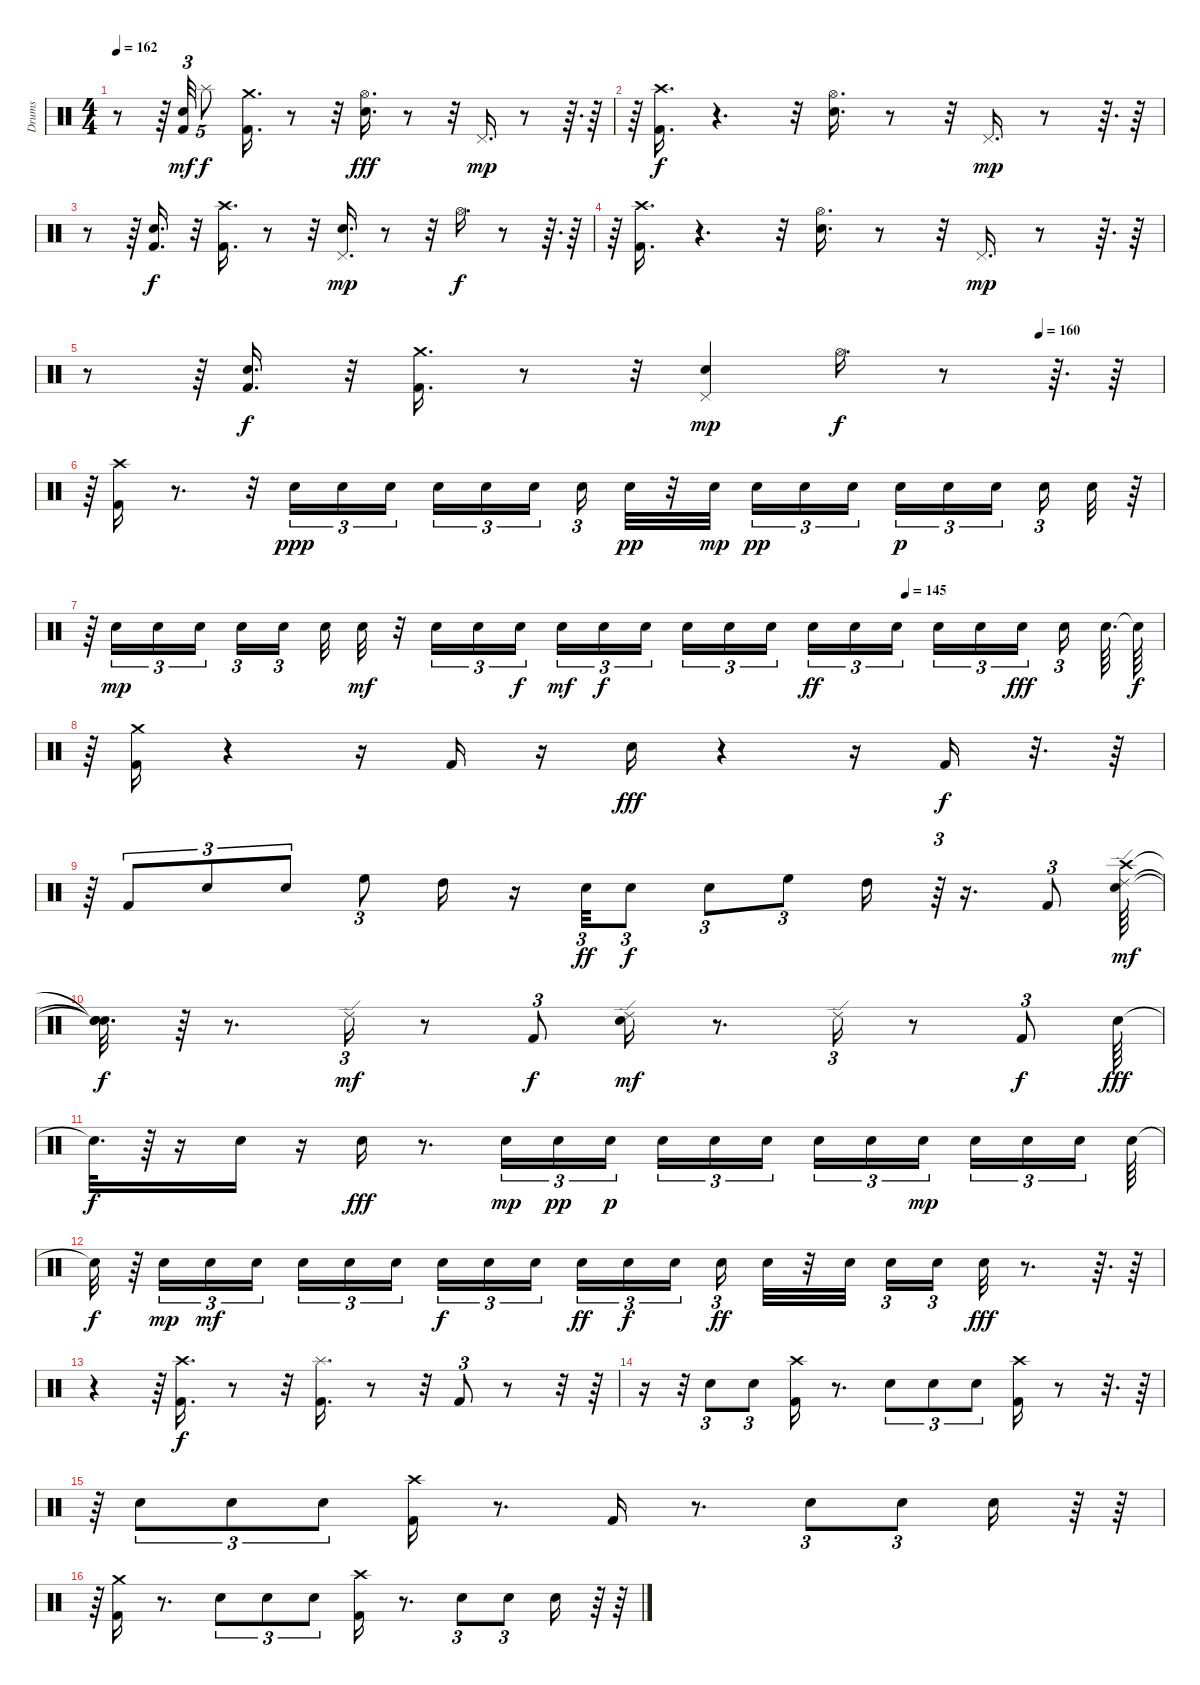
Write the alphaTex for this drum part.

\track ("Drums" "Drums") {instrument percussion}
\staff {score}
\articulation defaults
\ts (4 4)
\tempo 162
\clef neutral
\ks c
r.8{dy mp} r.64 ("Snare (hit) 2" "Kick (hit) 2").32{tu (3 2) dy mf} "Splash (hit)".8{tu (5 4) dy f} ("Kick (hit) 2" "Crash medium (hit)").16{d} r.8 r.32 ("Snare (hit) 2" "Hi-Hat (open)").16{d dy fff} r.8 r.32 "Pedal Hi-Hat (hit)".16{d dy mp} r.8 r.64{d} r.64 |
r.64 ("Kick (hit) 2" "Crash high (hit)").16{d dy f} r.4{d} r.32 ("Hi-Hat (open)" "Snare (hit) 2").16{d} r.8 r.32 "Pedal Hi-Hat (hit)".16{d dy mp} r.8 r.64{d} r.64 |
r.8 r.64 ("Snare (hit) 2" "Kick (hit) 2").16{d dy f} r.32 ("Crash high (hit)" "Kick (hit) 2").16{d} r.8 r.32 ("Snare (hit) 2" "Pedal Hi-Hat (hit)").16{d dy mp} r.8 r.32 "Hi-Hat (open)".16{d dy f} r.8 r.64{d} r.64 |
r.64 ("Crash high (hit)" "Kick (hit) 2").16{d} r.4{d} r.32 ("Hi-Hat (open)" "Snare (hit) 2").16{d} r.8 r.32 "Pedal Hi-Hat (hit)".16{d dy mp} r.8 r.64{d} r.64 |
\tempo (160 0.8854166666666666)
r.8 r.64 ("Snare (hit) 2" "Kick (hit) 2").16{d dy f} r.32 ("Kick (hit) 2" "Crash medium (hit)").16{d} r.8 r.32 ("Snare (hit) 2" "Pedal Hi-Hat (hit)").4{dy mp} "Hi-Hat (open)".16{d dy f} r.8 r.64{d} r.64 |
r.64 ("Crash high (hit)" "Kick (hit) 2").16 r.8{d} r.32 "Snare (hit) 2".16{tu (3 2) dy ppp} "Snare (hit) 2".16{tu (3 2)} "Snare (hit) 2".16{tu (3 2)} "Snare (hit) 2".16{tu (3 2)} "Snare (hit) 2".16{tu (3 2)} "Snare (hit) 2".16{tu (3 2) volume 8} "Snare (hit) 2".16{tu (3 2)} "Snare (hit) 2".32{dy pp} r.32 "Snare (hit) 2".32{dy mp} "Snare (hit) 2".16{tu (3 2) dy pp} "Snare (hit) 2".16{tu (3 2)} "Snare (hit) 2".16{tu (3 2)} "Snare (hit) 2".16{tu (3 2) dy p} "Snare (hit) 2".16{tu (3 2)} "Snare (hit) 2".16{tu (3 2)} "Snare (hit) 2".16{tu (3 2)} "Snare (hit) 2".32 r.64 |
\tempo (145 0.7604166666666666)
r.64 "Snare (hit) 2".16{tu (3 2) dy mp} "Snare (hit) 2".16{tu (3 2)} "Snare (hit) 2".16{tu (3 2)} "Snare (hit) 2".16{tu (3 2)} "Snare (hit) 2".16{tu (3 2)} "Snare (hit) 2".32 "Snare (hit) 2".32{dy mf} r.32 "Snare (hit) 2".16{tu (3 2)} "Snare (hit) 2".16{tu (3 2)} "Snare (hit) 2".16{tu (3 2) dy f} "Snare (hit) 2".16{tu (3 2) dy mf} "Snare (hit) 2".16{tu (3 2) dy f} "Snare (hit) 2".16{tu (3 2)} "Snare (hit) 2".16{tu (3 2)} "Snare (hit) 2".16{tu (3 2)} "Snare (hit) 2".16{tu (3 2)} "Snare (hit) 2".16{tu (3 2) dy ff} "Snare (hit) 2".16{tu (3 2)} "Snare (hit) 2".16{tu (3 2)} "Snare (hit) 2".16{tu (3 2)} "Snare (hit) 2".16{tu (3 2)} "Snare (hit) 2".16{tu (3 2) dy fff} "Snare (hit) 2".16{tu (3 2)} "Snare (hit) 2".64{d} "Snare (hit)"{t}.64{dy f} |
r.64 ("Crash medium (hit)" "Kick (hit) 2").16{volume 14} r.4 r.16 "Kick (hit) 2".16 r.16 "Snare (hit) 2".16{dy fff} r.4 r.16 "Kick (hit) 2".16{dy f} r.32{d} r.64 |
r.64 "Kick (hit) 2".8{tu (3 2)} "Snare (hit) 2".8{tu (3 2)} "Snare (hit) 2".8{tu (3 2)} "High Floor Tom (hit)".8{tu (3 2)} "High Tom (hit)".16 r.16 "Snare (hit) 2".32{tu (3 2) dy ff} "Snare (hit) 2".8{tu (3 2) dy f} "Snare (hit) 2".8{tu (3 2)} "High Floor Tom (hit)".8{tu (3 2)} "High Tom (hit)".16 r.64{tu (3 2)} r.16{d} "Kick (hit) 2".8{tu (3 2)} ("Snare (hit) 2" "Crash high (hit)" "Ride (edge) 2").64{dy mf} |
("Snare (hit)"{t} "Snare (hit)"{t} "Snare (hit)"{t}).32{d dy f} r.64 r.8{d} "Ride (edge) 2".16{tu (3 2) dy mf} r.8 "Kick (hit) 2".8{tu (3 2) dy f} ("Snare (hit) 2" "Ride (edge) 2").16{dy mf} r.8{d} "Ride (edge) 2".16{tu (3 2)} r.8 "Kick (hit) 2".8{tu (3 2) dy f} "Snare (hit) 2".64{dy fff} |
"Snare (hit)"{t}.32{d dy f} r.64 r.16 "Snare (hit) 2".16 r.16 "Snare (hit) 2".16{dy fff} r.8{d} "Snare (hit) 2".16{tu (3 2) dy mp volume 7} "Snare (hit) 2".16{tu (3 2) dy pp volume 7} "Snare (hit) 2".16{tu (3 2) dy p volume 7} "Snare (hit) 2".16{tu (3 2)} "Snare (hit) 2".16{tu (3 2) volume 7} "Snare (hit) 2".16{tu (3 2) volume 7} "Snare (hit) 2".16{tu (3 2) volume 7} "Snare (hit) 2".16{tu (3 2)} "Snare (hit) 2".16{tu (3 2) dy mp volume 8} "Snare (hit) 2".16{tu (3 2) volume 8} "Snare (hit) 2".16{tu (3 2) volume 8} "Snare (hit) 2".16{tu (3 2) volume 8} "Snare (hit) 2".64 |
"Snare (hit)"{t}.32{dy f} r.64 "Snare (hit) 2".16{tu (3 2) dy mp volume 8} "Snare (hit) 2".16{tu (3 2) dy mf volume 8} "Snare (hit) 2".16{tu (3 2) volume 8} "Snare (hit) 2".16{tu (3 2)} "Snare (hit) 2".16{tu (3 2) volume 8} "Snare (hit) 2".16{tu (3 2) volume 8} "Snare (hit) 2".16{tu (3 2) dy f volume 9} "Snare (hit) 2".16{tu (3 2) volume 9} "Snare (hit) 2".16{tu (3 2)} "Snare (hit) 2".16{tu (3 2) dy ff volume 9} "Snare (hit) 2".16{tu (3 2) dy f volume 9} "Snare (hit) 2".16{tu (3 2) volume 9} "Snare (hit) 2".16{tu (3 2) dy ff} "Snare (hit) 2".32{volume 10} r.32 "Snare (hit) 2".32{volume 11} "Snare (hit) 2".16{tu (3 2) volume 12} "Snare (hit) 2".16{tu (3 2) volume 13} "Snare (hit) 2".32{dy fff volume 14} r.8{d} r.64{d} r.64 |
r.4 r.64 ("Kick (hit) 2" "Crash high (hit)").16{d dy f volume 14} r.8 r.32 ("Kick (hit) 2" "Splash (hit)").16{d} r.8 r.32 "Kick (hit) 2".8{tu (3 2)} r.8 r.32 r.64 |
r.16 r.32{tu (5 4)} "Snare (hit) 2".8{tu (3 2)} "Snare (hit) 2".8{tu (3 2)} ("Kick (hit) 2" "Crash high (hit)").16 r.8{d} "Snare (hit) 2".8{tu (3 2)} "Snare (hit) 2".8{tu (3 2)} "Snare (hit) 2".8{tu (3 2)} ("Crash high (hit)" "Kick (hit) 2").16 r.8 r.32{d} r.64 |
r.64 "Snare (hit) 2".8{tu (3 2)} "Snare (hit) 2".8{tu (3 2)} "Snare (hit) 2".8{tu (3 2)} ("Kick (hit) 2" "Crash high (hit)").16 r.8{d} "Kick (hit) 2".16 r.8{d} "Snare (hit) 2".8{tu (3 2)} "Snare (hit) 2".8{tu (3 2)} "Snare (hit) 2".16 r.64 r.64 |
r.64 ("Crash medium (hit)" "Kick (hit) 2").16 r.8{d} "Snare (hit) 2".8{tu (3 2)} "Snare (hit) 2".8{tu (3 2)} "Snare (hit) 2".8{tu (3 2)} ("Kick (hit) 2" "Crash high (hit)").16 r.8{d} "Snare (hit) 2".8{tu (3 2)} "Snare (hit) 2".8{tu (3 2)} "Snare (hit) 2".16 r.64 r.64
